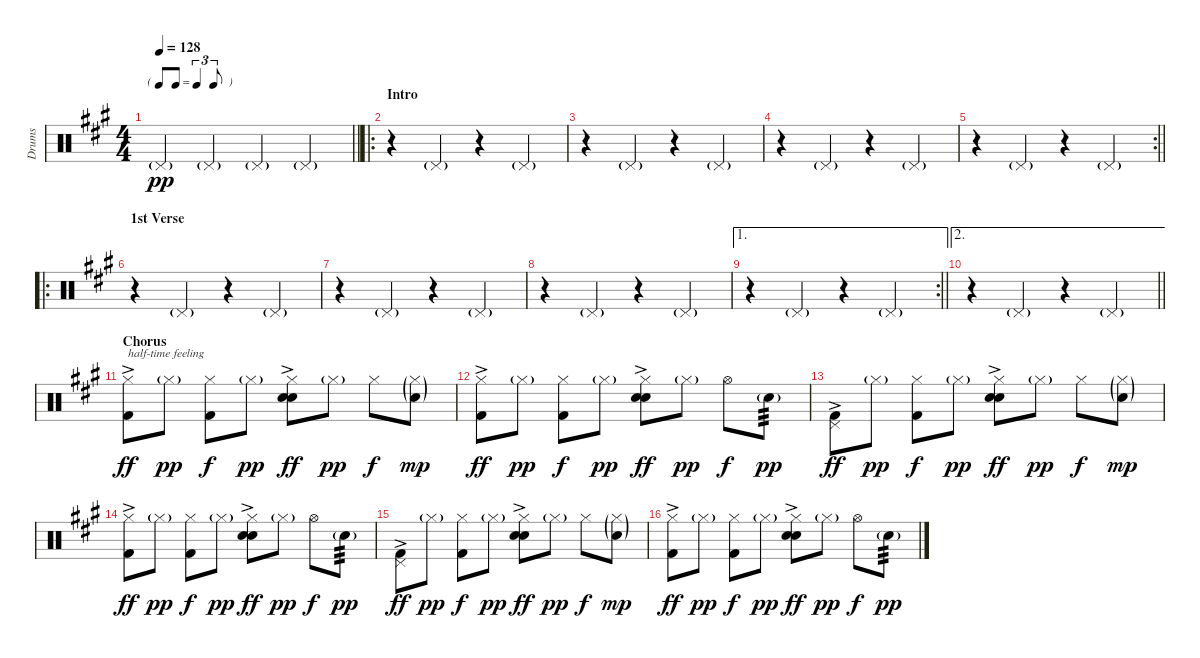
\track ("Drums" "Drums") {instrument percussion}
\staff {score}
\articulation defaults
\ts (4 4)
\tf triplet8th
\tempo 128
\clef neutral
\barLineRight lightlight
\ks a "Pedal Hi-Hat (hit)"{g}.4{dy pp} "Pedal Hi-Hat (hit)"{g}.4 "Pedal Hi-Hat (hit)"{g}.4 "Pedal Hi-Hat (hit)"{g}.4
|
\ro
\section ("" "Intro")
r.4 "Pedal Hi-Hat (hit)"{g}.4 r.4 "Pedal Hi-Hat (hit)"{g}.4 |
r.4 "Pedal Hi-Hat (hit)"{g}.4 r.4 "Pedal Hi-Hat (hit)"{g}.4 |
r.4 "Pedal Hi-Hat (hit)"{g}.4 r.4 "Pedal Hi-Hat (hit)"{g}.4 |
\rc 2
\barLineRight lightlight
r.4 "Pedal Hi-Hat (hit)"{g}.4 r.4 "Pedal Hi-Hat (hit)"{g}.4 |
\ro
\section ("" "1st Verse")
r.4 "Pedal Hi-Hat (hit)"{g}.4 r.4 "Pedal Hi-Hat (hit)"{g}.4 |
r.4 "Pedal Hi-Hat (hit)"{g}.4 r.4 "Pedal Hi-Hat (hit)"{g}.4 |
r.4 "Pedal Hi-Hat (hit)"{g}.4 r.4 "Pedal Hi-Hat (hit)"{g}.4 |
\ae 1
\rc 2
\barLineRight lightlight
r.4 "Pedal Hi-Hat (hit)"{g}.4 r.4 "Pedal Hi-Hat (hit)"{g}.4 |
\ae 2
\barLineRight lightlight
r.4 "Pedal Hi-Hat (hit)"{g}.4 r.4 "Pedal Hi-Hat (hit)"{g}.4 |
\section ("" "Chorus")
("Hi-Hat (closed)" "Kick (hit) 2"{ac}).8{txt "half-time feeling" dy ff} "Hi-Hat (closed)"{g}.8{dy pp} ("Hi-Hat (closed)" "Kick (hit) 2").8{dy f} "Hi-Hat (closed)"{g}.8{dy pp} ("Hi-Hat (closed)" "Electric Snare (hit)"{ac} "Snare (hit) 2").8{dy ff} "Hi-Hat (closed)"{g}.8{dy pp} "Hi-Hat (closed)".8{dy f} ("Hi-Hat (closed)"{g} "Snare (hit) 2"{g}).8{dy mp} |
("Hi-Hat (closed)" "Kick (hit) 2"{ac}).8{dy ff} "Hi-Hat (closed)"{g}.8{dy pp} ("Hi-Hat (closed)" "Kick (hit) 2").8{dy f} "Hi-Hat (closed)"{g}.8{dy pp} ("Hi-Hat (closed)" "Electric Snare (hit)"{ac} "Snare (hit) 2").8{dy ff} "Hi-Hat (closed)"{g}.8{dy pp} "Hi-Hat (open)".8{dy f} "Snare (hit) 2"{g}.8{tp 3 dy pp} |
("Pedal Hi-Hat (hit)" "Kick (hit) 2"{ac}).8{dy ff} "Hi-Hat (closed)"{g}.8{dy pp} ("Hi-Hat (closed)" "Kick (hit) 2").8{dy f} "Hi-Hat (closed)"{g}.8{dy pp} ("Hi-Hat (closed)" "Electric Snare (hit)"{ac} "Snare (hit) 2").8{dy ff} "Hi-Hat (closed)"{g}.8{dy pp} "Hi-Hat (closed)".8{dy f} ("Hi-Hat (closed)"{g} "Snare (hit) 2"{g}).8{dy mp} |
("Hi-Hat (closed)" "Kick (hit) 2"{ac}).8{dy ff} "Hi-Hat (closed)"{g}.8{dy pp} ("Hi-Hat (closed)" "Kick (hit) 2").8{dy f} "Hi-Hat (closed)"{g}.8{dy pp} ("Hi-Hat (closed)" "Electric Snare (hit)"{ac} "Snare (hit) 2").8{dy ff} "Hi-Hat (closed)"{g}.8{dy pp} "Hi-Hat (open)".8{dy f} "Snare (hit) 2"{g}.8{tp 3 dy pp} |
("Pedal Hi-Hat (hit)" "Kick (hit) 2"{ac}).8{dy ff} "Hi-Hat (closed)"{g}.8{dy pp} ("Hi-Hat (closed)" "Kick (hit) 2").8{dy f} "Hi-Hat (closed)"{g}.8{dy pp} ("Hi-Hat (closed)" "Electric Snare (hit)"{ac} "Snare (hit) 2").8{dy ff} "Hi-Hat (closed)"{g}.8{dy pp} "Hi-Hat (closed)".8{dy f} ("Hi-Hat (closed)"{g} "Snare (hit) 2"{g}).8{dy mp} |
("Hi-Hat (closed)" "Kick (hit) 2"{ac}).8{dy ff} "Hi-Hat (closed)"{g}.8{dy pp} ("Hi-Hat (closed)" "Kick (hit) 2").8{dy f} "Hi-Hat (closed)"{g}.8{dy pp} ("Hi-Hat (closed)" "Electric Snare (hit)"{ac} "Snare (hit) 2").8{dy ff} "Hi-Hat (closed)"{g}.8{dy pp} "Hi-Hat (open)".8{dy f} "Snare (hit) 2"{g}.8{tp 3 dy pp}
